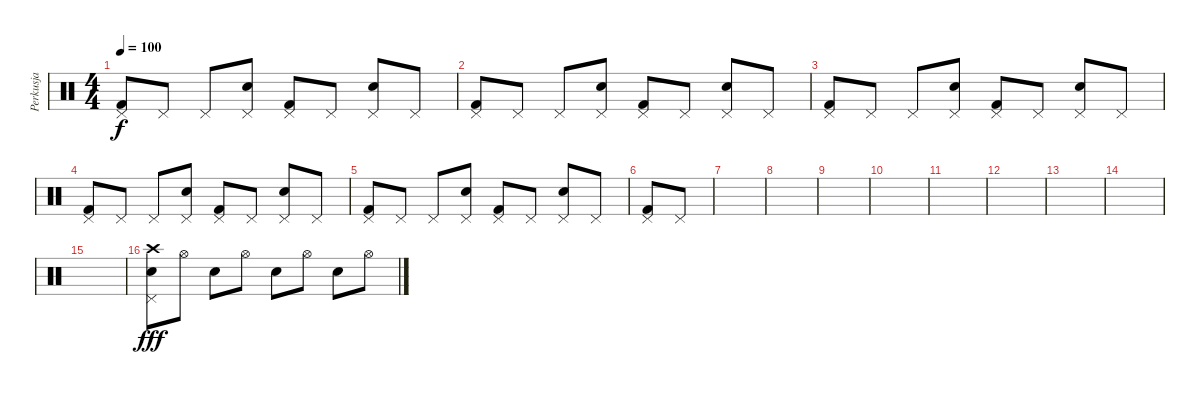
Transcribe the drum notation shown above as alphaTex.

\track ("Perkusja" "Perkusja") {instrument percussion}
\staff {score}
\articulation defaults
\ts (4 4)
\tempo 100
\clef neutral
\ks c
("Pedal Hi-Hat (hit)" "Kick (hit) 2").8{dy f} "Pedal Hi-Hat (hit)".8 "Pedal Hi-Hat (hit)".8 ("Pedal Hi-Hat (hit)" "Snare (hit) 2").8 ("Pedal Hi-Hat (hit)" "Kick (hit) 2").8 "Pedal Hi-Hat (hit)".8 ("Pedal Hi-Hat (hit)" "Snare (hit) 2").8 "Pedal Hi-Hat (hit)".8 |
("Pedal Hi-Hat (hit)" "Kick (hit) 2").8 "Pedal Hi-Hat (hit)".8 "Pedal Hi-Hat (hit)".8 ("Pedal Hi-Hat (hit)" "Snare (hit) 2").8 ("Pedal Hi-Hat (hit)" "Kick (hit) 2").8 "Pedal Hi-Hat (hit)".8 ("Pedal Hi-Hat (hit)" "Snare (hit) 2").8 "Pedal Hi-Hat (hit)".8 |
("Pedal Hi-Hat (hit)" "Kick (hit) 2").8 "Pedal Hi-Hat (hit)".8 "Pedal Hi-Hat (hit)".8 ("Pedal Hi-Hat (hit)" "Snare (hit) 2").8 ("Pedal Hi-Hat (hit)" "Kick (hit) 2").8 "Pedal Hi-Hat (hit)".8 ("Pedal Hi-Hat (hit)" "Snare (hit) 2").8 "Pedal Hi-Hat (hit)".8 |
("Pedal Hi-Hat (hit)" "Kick (hit) 2").8 "Pedal Hi-Hat (hit)".8 "Pedal Hi-Hat (hit)".8 ("Pedal Hi-Hat (hit)" "Snare (hit) 2").8 ("Pedal Hi-Hat (hit)" "Kick (hit) 2").8 "Pedal Hi-Hat (hit)".8 ("Pedal Hi-Hat (hit)" "Snare (hit) 2").8 "Pedal Hi-Hat (hit)".8 |
("Pedal Hi-Hat (hit)" "Kick (hit) 2").8 "Pedal Hi-Hat (hit)".8 "Pedal Hi-Hat (hit)".8 ("Pedal Hi-Hat (hit)" "Snare (hit) 2").8 ("Pedal Hi-Hat (hit)" "Kick (hit) 2").8 "Pedal Hi-Hat (hit)".8 ("Pedal Hi-Hat (hit)" "Snare (hit) 2").8 "Pedal Hi-Hat (hit)".8 |
("Pedal Hi-Hat (hit)" "Kick (hit) 2").8 "Pedal Hi-Hat (hit)".8 |
|
|
|
|
|
|
|
|
|
("Electric Snare (hit)" "Pedal Hi-Hat (hit)" "Crash high (hit)").8{dy fff} "Hi-Hat (open)".8 "Electric Snare (hit)".8 "Hi-Hat (open)".8 "Electric Snare (hit)".8 "Hi-Hat (open)".8 "Electric Snare (hit)".8 "Hi-Hat (open)".8
